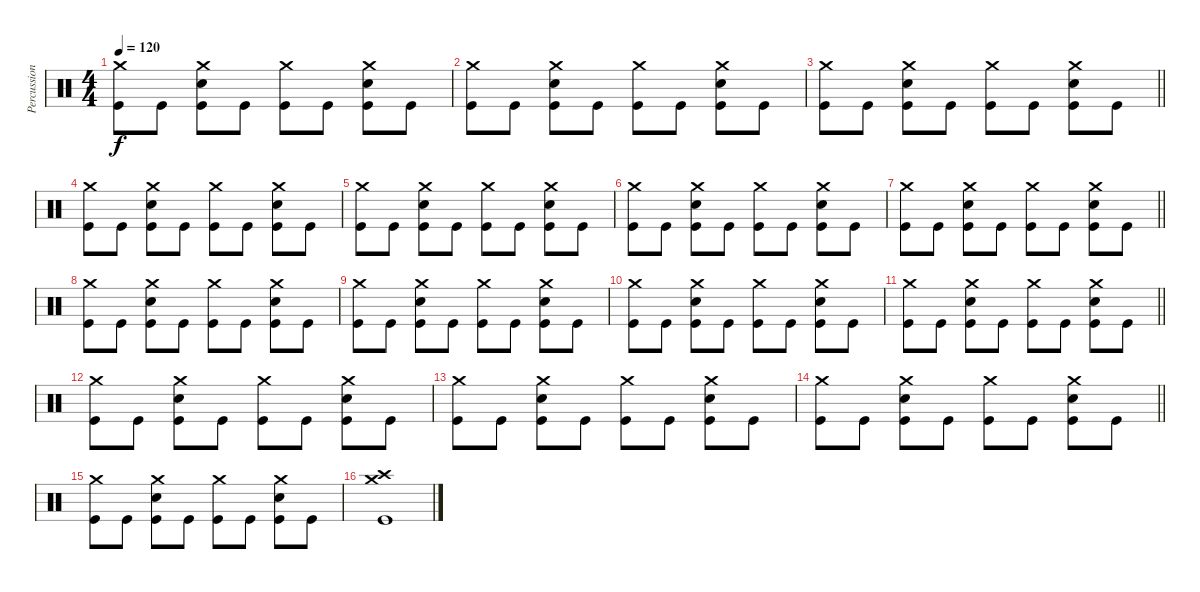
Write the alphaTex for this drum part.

\track ("Percussion" "Percussion") {instrument percussion}
\staff {score}
\articulation defaults
\ts (4 4)
\tempo 120
\clef neutral
\ks c
("Crash medium (hit)" "Kick (hit)").8{dy f} "Kick (hit)".8 ("Crash medium (hit)" "Snare (hit) 2" "Kick (hit)").8 "Kick (hit)".8 ("Crash medium (hit)" "Kick (hit)").8 "Kick (hit)".8 ("Crash medium (hit)" "Snare (hit) 2" "Kick (hit)").8 "Kick (hit)".8 |
("Crash medium (hit)" "Kick (hit)").8 "Kick (hit)".8 ("Crash medium (hit)" "Snare (hit) 2" "Kick (hit)").8 "Kick (hit)".8 ("Crash medium (hit)" "Kick (hit)").8 "Kick (hit)".8 ("Crash medium (hit)" "Snare (hit) 2" "Kick (hit)").8 "Kick (hit)".8 |
\barLineRight lightlight
("Crash medium (hit)" "Kick (hit)").8 "Kick (hit)".8 ("Crash medium (hit)" "Snare (hit) 2" "Kick (hit)").8 "Kick (hit)".8 ("Crash medium (hit)" "Kick (hit)").8 "Kick (hit)".8 ("Crash medium (hit)" "Snare (hit) 2" "Kick (hit)").8 "Kick (hit)".8 |
("Crash medium (hit)" "Kick (hit)").8 "Kick (hit)".8 ("Crash medium (hit)" "Snare (hit) 2" "Kick (hit)").8 "Kick (hit)".8 ("Crash medium (hit)" "Kick (hit)").8 "Kick (hit)".8 ("Crash medium (hit)" "Snare (hit) 2" "Kick (hit)").8 "Kick (hit)".8 |
("Crash medium (hit)" "Kick (hit)").8 "Kick (hit)".8 ("Crash medium (hit)" "Snare (hit) 2" "Kick (hit)").8 "Kick (hit)".8 ("Crash medium (hit)" "Kick (hit)").8 "Kick (hit)".8 ("Crash medium (hit)" "Snare (hit) 2" "Kick (hit)").8 "Kick (hit)".8 |
("Crash medium (hit)" "Kick (hit)").8 "Kick (hit)".8 ("Crash medium (hit)" "Snare (hit) 2" "Kick (hit)").8 "Kick (hit)".8 ("Crash medium (hit)" "Kick (hit)").8 "Kick (hit)".8 ("Crash medium (hit)" "Snare (hit) 2" "Kick (hit)").8 "Kick (hit)".8 |
\barLineRight lightlight
("Crash medium (hit)" "Kick (hit)").8 "Kick (hit)".8 ("Crash medium (hit)" "Snare (hit) 2" "Kick (hit)").8 "Kick (hit)".8 ("Crash medium (hit)" "Kick (hit)").8 "Kick (hit)".8 ("Crash medium (hit)" "Snare (hit) 2" "Kick (hit)").8 "Kick (hit)".8 |
("Crash medium (hit)" "Kick (hit)").8 "Kick (hit)".8 ("Crash medium (hit)" "Snare (hit) 2" "Kick (hit)").8 "Kick (hit)".8 ("Crash medium (hit)" "Kick (hit)").8 "Kick (hit)".8 ("Crash medium (hit)" "Snare (hit) 2" "Kick (hit)").8 "Kick (hit)".8 |
("Crash medium (hit)" "Kick (hit)").8 "Kick (hit)".8 ("Crash medium (hit)" "Snare (hit) 2" "Kick (hit)").8 "Kick (hit)".8 ("Crash medium (hit)" "Kick (hit)").8 "Kick (hit)".8 ("Crash medium (hit)" "Snare (hit) 2" "Kick (hit)").8 "Kick (hit)".8 |
("Crash medium (hit)" "Kick (hit)").8 "Kick (hit)".8 ("Crash medium (hit)" "Snare (hit) 2" "Kick (hit)").8 "Kick (hit)".8 ("Crash medium (hit)" "Kick (hit)").8 "Kick (hit)".8 ("Crash medium (hit)" "Snare (hit) 2" "Kick (hit)").8 "Kick (hit)".8 |
\barLineRight lightlight
("Crash medium (hit)" "Kick (hit)").8 "Kick (hit)".8 ("Crash medium (hit)" "Snare (hit) 2" "Kick (hit)").8 "Kick (hit)".8 ("Crash medium (hit)" "Kick (hit)").8 "Kick (hit)".8 ("Crash medium (hit)" "Snare (hit) 2" "Kick (hit)").8 "Kick (hit)".8 |
("Crash medium (hit)" "Kick (hit)").8 "Kick (hit)".8 ("Crash medium (hit)" "Snare (hit) 2" "Kick (hit)").8 "Kick (hit)".8 ("Crash medium (hit)" "Kick (hit)").8 "Kick (hit)".8 ("Crash medium (hit)" "Snare (hit) 2" "Kick (hit)").8 "Kick (hit)".8 |
("Crash medium (hit)" "Kick (hit)").8 "Kick (hit)".8 ("Crash medium (hit)" "Snare (hit) 2" "Kick (hit)").8 "Kick (hit)".8 ("Crash medium (hit)" "Kick (hit)").8 "Kick (hit)".8 ("Crash medium (hit)" "Snare (hit) 2" "Kick (hit)").8 "Kick (hit)".8 |
\barLineRight lightlight
("Crash medium (hit)" "Kick (hit)").8 "Kick (hit)".8 ("Crash medium (hit)" "Snare (hit) 2" "Kick (hit)").8 "Kick (hit)".8 ("Crash medium (hit)" "Kick (hit)").8 "Kick (hit)".8 ("Crash medium (hit)" "Snare (hit) 2" "Kick (hit)").8 "Kick (hit)".8 |
("Crash medium (hit)" "Kick (hit)").8 "Kick (hit)".8 ("Crash medium (hit)" "Snare (hit) 2" "Kick (hit)").8 "Kick (hit)".8 ("Crash medium (hit)" "Kick (hit)").8 "Kick (hit)".8 ("Crash medium (hit)" "Snare (hit) 2" "Kick (hit)").8 "Kick (hit)".8 |
("Crash medium (hit)" "Crash high (hit)" "Kick (hit)").1
